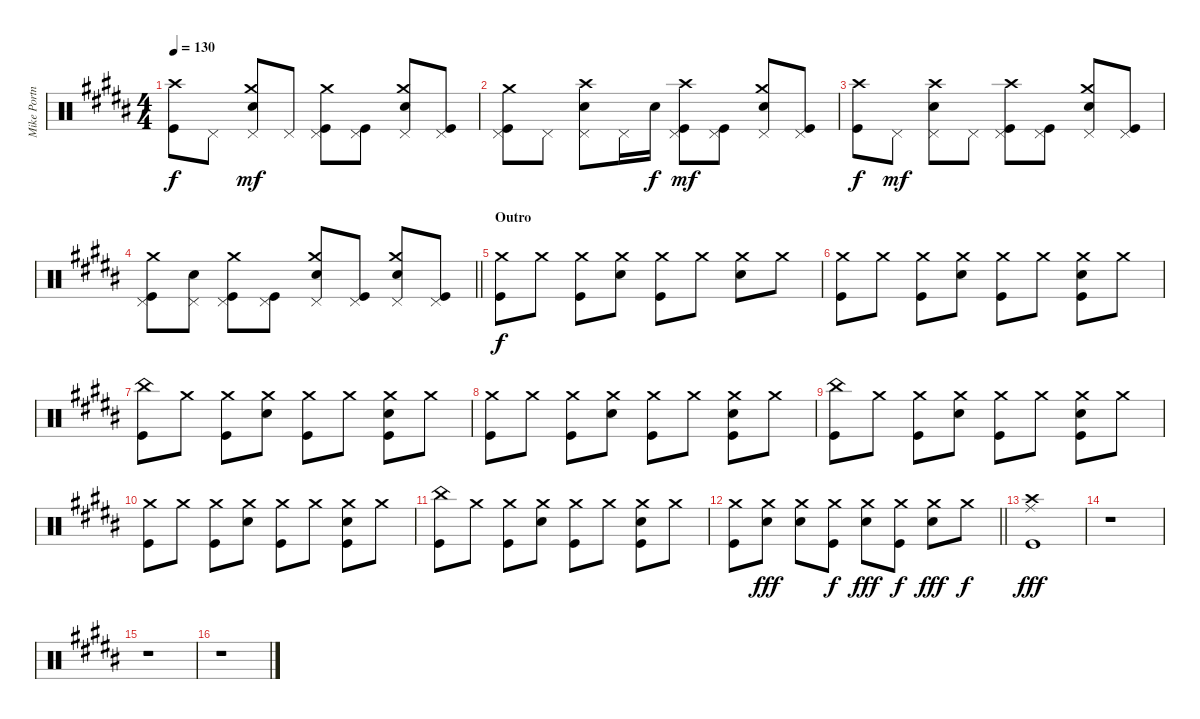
\track ("Mike Portnoy" "Mike Portn") {instrument percussion}
\staff {score}
\articulation defaults
\ts (4 4)
\tempo 130
\clef neutral
\ks g#minor
("Crash high (hit)" "Kick (hit)").8{dy f} "Pedal Hi-Hat (hit)".8 ("Crash medium (hit)" "Pedal Hi-Hat (hit)" "Electric Snare (hit)").8{dy mf} "Pedal Hi-Hat (hit)".8 ("Crash medium (hit)" "Pedal Hi-Hat (hit)" "Kick (hit)").8 ("Pedal Hi-Hat (hit)" "Kick (hit)").8 ("Crash medium (hit)" "Pedal Hi-Hat (hit)" "Electric Snare (hit)").8 ("Pedal Hi-Hat (hit)" "Kick (hit)").8 |
("Crash medium (hit)" "Pedal Hi-Hat (hit)" "Kick (hit)").8 "Pedal Hi-Hat (hit)".8 ("Crash high (hit)" "Pedal Hi-Hat (hit)" "Electric Snare (hit)").8 "Pedal Hi-Hat (hit)".16 "Electric Snare (hit)".16{dy f} ("Crash high (hit)" "Pedal Hi-Hat (hit)" "Kick (hit)").8{dy mf} ("Pedal Hi-Hat (hit)" "Kick (hit)").8 ("Crash medium (hit)" "Pedal Hi-Hat (hit)" "Electric Snare (hit)").8 ("Pedal Hi-Hat (hit)" "Kick (hit)").8 |
("Crash high (hit)" "Kick (hit)").8{dy f} "Pedal Hi-Hat (hit)".8{dy mf} ("Crash high (hit)" "Pedal Hi-Hat (hit)" "Electric Snare (hit)").8 "Pedal Hi-Hat (hit)".8 ("Crash high (hit)" "Pedal Hi-Hat (hit)" "Kick (hit)").8 ("Pedal Hi-Hat (hit)" "Kick (hit)").8 ("Crash medium (hit)" "Pedal Hi-Hat (hit)" "Electric Snare (hit)").8 ("Pedal Hi-Hat (hit)" "Kick (hit)").8 |
\barLineRight lightlight
("Crash medium (hit)" "Pedal Hi-Hat (hit)" "Kick (hit)").8 ("Pedal Hi-Hat (hit)" "Electric Snare (hit)").8 ("Crash medium (hit)" "Pedal Hi-Hat (hit)" "Kick (hit)").8 ("Pedal Hi-Hat (hit)" "Kick (hit)").8 ("Crash medium (hit)" "Pedal Hi-Hat (hit)" "Electric Snare (hit)").8 ("Pedal Hi-Hat (hit)" "Kick (hit)").8 ("Crash medium (hit)" "Pedal Hi-Hat (hit)" "Electric Snare (hit)").8 ("Pedal Hi-Hat (hit)" "Kick (hit)").8 |
\section ("" "Outro")
("Crash medium (hit)" "Kick (hit)").8{dy f} "Crash medium (hit)".8 ("Crash medium (hit)" "Kick (hit)").8 ("Crash medium (hit)" "Electric Snare (hit)").8 ("Crash medium (hit)" "Kick (hit)").8 "Crash medium (hit)".8 ("Crash medium (hit)" "Electric Snare (hit)").8 "Crash medium (hit)".8 |
("Crash medium (hit)" "Kick (hit)").8 "Crash medium (hit)".8 ("Crash medium (hit)" "Kick (hit)").8 ("Crash medium (hit)" "Electric Snare (hit)").8 ("Crash medium (hit)" "Kick (hit)").8 "Crash medium (hit)".8 ("Crash medium (hit)" "Electric Snare (hit)" "Kick (hit)").8 "Crash medium (hit)".8 |
("China (hit)" "Kick (hit)").8 "Crash medium (hit)".8 ("Crash medium (hit)" "Kick (hit)").8 ("Crash medium (hit)" "Electric Snare (hit)").8 ("Crash medium (hit)" "Kick (hit)").8 "Crash medium (hit)".8 ("Crash medium (hit)" "Electric Snare (hit)" "Kick (hit)").8 "Crash medium (hit)".8 |
("Crash medium (hit)" "Kick (hit)").8 "Crash medium (hit)".8 ("Crash medium (hit)" "Kick (hit)").8 ("Crash medium (hit)" "Electric Snare (hit)").8 ("Crash medium (hit)" "Kick (hit)").8 "Crash medium (hit)".8 ("Crash medium (hit)" "Electric Snare (hit)" "Kick (hit)").8 "Crash medium (hit)".8 |
("China (hit)" "Kick (hit)").8 "Crash medium (hit)".8 ("Crash medium (hit)" "Kick (hit)").8 ("Crash medium (hit)" "Electric Snare (hit)").8 ("Crash medium (hit)" "Kick (hit)").8 "Crash medium (hit)".8 ("Crash medium (hit)" "Electric Snare (hit)" "Kick (hit)").8 "Crash medium (hit)".8 |
("Crash medium (hit)" "Kick (hit)").8 "Crash medium (hit)".8 ("Crash medium (hit)" "Kick (hit)").8 ("Crash medium (hit)" "Electric Snare (hit)").8 ("Crash medium (hit)" "Kick (hit)").8 "Crash medium (hit)".8 ("Crash medium (hit)" "Electric Snare (hit)" "Kick (hit)").8 "Crash medium (hit)".8 |
("China (hit)" "Kick (hit)").8 "Crash medium (hit)".8 ("Crash medium (hit)" "Kick (hit)").8 ("Crash medium (hit)" "Electric Snare (hit)").8 ("Crash medium (hit)" "Kick (hit)").8 "Crash medium (hit)".8 ("Crash medium (hit)" "Electric Snare (hit)" "Kick (hit)").8 "Crash medium (hit)".8 |
\barLineRight lightlight
("Crash medium (hit)" "Kick (hit)").8 ("Crash medium (hit)" "Electric Snare (hit)").8{dy fff} ("Crash medium (hit)" "Electric Snare (hit)").8 ("Crash medium (hit)" "Kick (hit)").8{dy f} ("Crash medium (hit)" "Electric Snare (hit)").8{dy fff} ("Crash medium (hit)" "Kick (hit)").8{dy f} ("Crash medium (hit)" "Electric Snare (hit)").8{dy fff} "Crash medium (hit)".8{dy f} |
("Crash high (hit)" "Ride (middle)" "Kick (hit)").1{dy fff} |
r.1 |
r.1 |
r.1
